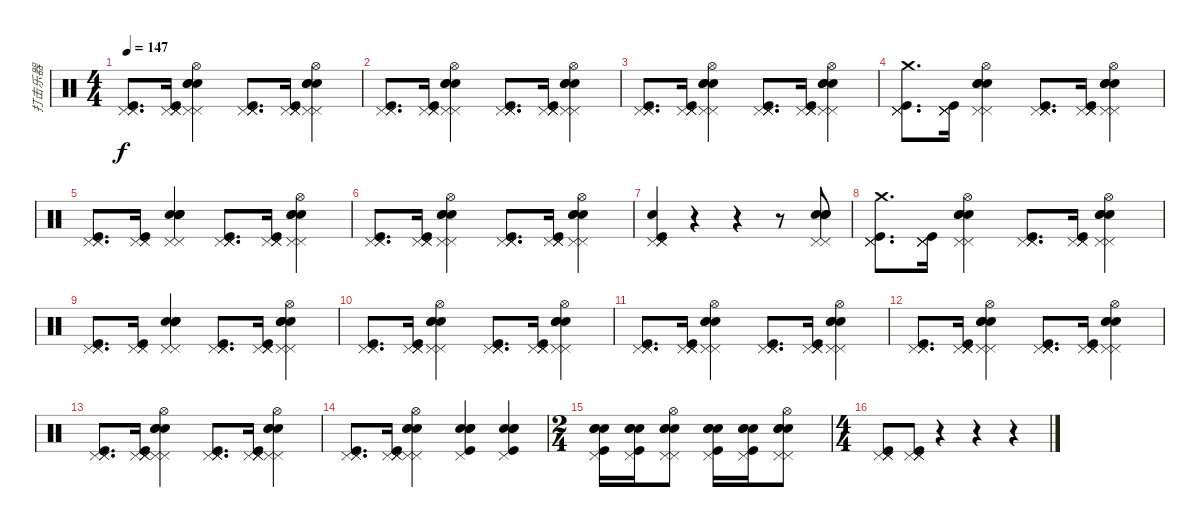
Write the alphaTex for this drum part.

\track ("打击乐器" "打击乐器") {instrument percussion}
\staff {score}
\articulation defaults
\ts (4 4)
\tempo 147
\clef neutral
\ks c
("Pedal Hi-Hat (hit)" "Pedal Hi-Hat (hit)" "Pedal Hi-Hat (hit)" "Kick (hit)").8{d dy f} ("Pedal Hi-Hat (hit)" "Pedal Hi-Hat (hit)" "Pedal Hi-Hat (hit)" "Pedal Hi-Hat (hit)" "Kick (hit)").16 ("Electric Snare (hit)" "Electric Snare (hit)" "Electric Snare (hit)" "Hi-Hat (open)" "Pedal Hi-Hat (hit)" "Pedal Hi-Hat (hit)").4 ("Pedal Hi-Hat (hit)" "Pedal Hi-Hat (hit)" "Pedal Hi-Hat (hit)" "Pedal Hi-Hat (hit)" "Kick (hit)").8{d} ("Pedal Hi-Hat (hit)" "Pedal Hi-Hat (hit)" "Pedal Hi-Hat (hit)" "Pedal Hi-Hat (hit)" "Kick (hit)").16 ("Electric Snare (hit)" "Electric Snare (hit)" "Electric Snare (hit)" "Hi-Hat (open)" "Pedal Hi-Hat (hit)" "Pedal Hi-Hat (hit)").4 |
("Pedal Hi-Hat (hit)" "Pedal Hi-Hat (hit)" "Pedal Hi-Hat (hit)" "Kick (hit)").8{d} ("Pedal Hi-Hat (hit)" "Pedal Hi-Hat (hit)" "Pedal Hi-Hat (hit)" "Pedal Hi-Hat (hit)" "Kick (hit)").16 ("Electric Snare (hit)" "Electric Snare (hit)" "Electric Snare (hit)" "Hi-Hat (open)" "Pedal Hi-Hat (hit)" "Pedal Hi-Hat (hit)").4 ("Pedal Hi-Hat (hit)" "Pedal Hi-Hat (hit)" "Pedal Hi-Hat (hit)" "Pedal Hi-Hat (hit)" "Kick (hit)").8{d} ("Pedal Hi-Hat (hit)" "Pedal Hi-Hat (hit)" "Pedal Hi-Hat (hit)" "Pedal Hi-Hat (hit)" "Kick (hit)").16 ("Electric Snare (hit)" "Electric Snare (hit)" "Electric Snare (hit)" "Hi-Hat (open)" "Pedal Hi-Hat (hit)" "Pedal Hi-Hat (hit)").4 |
("Pedal Hi-Hat (hit)" "Pedal Hi-Hat (hit)" "Pedal Hi-Hat (hit)" "Kick (hit)").8{d} ("Pedal Hi-Hat (hit)" "Pedal Hi-Hat (hit)" "Pedal Hi-Hat (hit)" "Pedal Hi-Hat (hit)" "Kick (hit)").16 ("Electric Snare (hit)" "Electric Snare (hit)" "Electric Snare (hit)" "Hi-Hat (open)" "Pedal Hi-Hat (hit)" "Pedal Hi-Hat (hit)").4 ("Pedal Hi-Hat (hit)" "Pedal Hi-Hat (hit)" "Pedal Hi-Hat (hit)" "Pedal Hi-Hat (hit)" "Kick (hit)").8{d} ("Pedal Hi-Hat (hit)" "Pedal Hi-Hat (hit)" "Pedal Hi-Hat (hit)" "Pedal Hi-Hat (hit)" "Kick (hit)").16 ("Electric Snare (hit)" "Electric Snare (hit)" "Electric Snare (hit)" "Hi-Hat (open)" "Pedal Hi-Hat (hit)" "Pedal Hi-Hat (hit)").4 |
("Pedal Hi-Hat (hit)" "Pedal Hi-Hat (hit)" "Pedal Hi-Hat (hit)" "Crash medium (hit)" "Kick (hit)").8{d} ("Pedal Hi-Hat (hit)" "Pedal Hi-Hat (hit)" "Pedal Hi-Hat (hit)" "Pedal Hi-Hat (hit)" "Kick (hit)").16 ("Electric Snare (hit)" "Electric Snare (hit)" "Electric Snare (hit)" "Hi-Hat (open)" "Pedal Hi-Hat (hit)" "Pedal Hi-Hat (hit)").4 ("Pedal Hi-Hat (hit)" "Pedal Hi-Hat (hit)" "Pedal Hi-Hat (hit)" "Pedal Hi-Hat (hit)" "Kick (hit)").8{d} ("Pedal Hi-Hat (hit)" "Pedal Hi-Hat (hit)" "Pedal Hi-Hat (hit)" "Pedal Hi-Hat (hit)" "Kick (hit)").16 ("Electric Snare (hit)" "Electric Snare (hit)" "Electric Snare (hit)" "Hi-Hat (open)" "Pedal Hi-Hat (hit)" "Pedal Hi-Hat (hit)").4 |
("Pedal Hi-Hat (hit)" "Pedal Hi-Hat (hit)" "Pedal Hi-Hat (hit)" "Kick (hit)").8{d} ("Pedal Hi-Hat (hit)" "Pedal Hi-Hat (hit)" "Pedal Hi-Hat (hit)" "Kick (hit)").16 ("Electric Snare (hit)" "Electric Snare (hit)" "Electric Snare (hit)" "Electric Snare (hit)" "Pedal Hi-Hat (hit)" "Pedal Hi-Hat (hit)").4 ("Pedal Hi-Hat (hit)" "Pedal Hi-Hat (hit)" "Pedal Hi-Hat (hit)" "Pedal Hi-Hat (hit)" "Kick (hit)").8{d} ("Pedal Hi-Hat (hit)" "Pedal Hi-Hat (hit)" "Pedal Hi-Hat (hit)" "Pedal Hi-Hat (hit)" "Kick (hit)").16 ("Electric Snare (hit)" "Electric Snare (hit)" "Electric Snare (hit)" "Hi-Hat (open)" "Pedal Hi-Hat (hit)" "Pedal Hi-Hat (hit)").4 |
("Pedal Hi-Hat (hit)" "Pedal Hi-Hat (hit)" "Pedal Hi-Hat (hit)" "Kick (hit)").8{d} ("Pedal Hi-Hat (hit)" "Pedal Hi-Hat (hit)" "Pedal Hi-Hat (hit)" "Pedal Hi-Hat (hit)" "Kick (hit)").16 ("Electric Snare (hit)" "Electric Snare (hit)" "Electric Snare (hit)" "Hi-Hat (open)" "Pedal Hi-Hat (hit)" "Pedal Hi-Hat (hit)").4 ("Pedal Hi-Hat (hit)" "Pedal Hi-Hat (hit)" "Pedal Hi-Hat (hit)" "Pedal Hi-Hat (hit)" "Kick (hit)").8{d} ("Pedal Hi-Hat (hit)" "Pedal Hi-Hat (hit)" "Pedal Hi-Hat (hit)" "Pedal Hi-Hat (hit)" "Kick (hit)").16 ("Electric Snare (hit)" "Electric Snare (hit)" "Electric Snare (hit)" "Hi-Hat (open)" "Pedal Hi-Hat (hit)" "Pedal Hi-Hat (hit)").4 |
("Pedal Hi-Hat (hit)" "Pedal Hi-Hat (hit)" "Pedal Hi-Hat (hit)" "Electric Snare (hit)" "Pedal Hi-Hat (hit)" "Kick (hit)").4 r.4 r.4 r.8 ("Pedal Hi-Hat (hit)" "Electric Snare (hit)" "Electric Snare (hit)" "Electric Snare (hit)" "Electric Snare (hit)" "Pedal Hi-Hat (hit)").8 |
("Pedal Hi-Hat (hit)" "Pedal Hi-Hat (hit)" "Pedal Hi-Hat (hit)" "Crash medium (hit)" "Kick (hit)").8{d} ("Pedal Hi-Hat (hit)" "Pedal Hi-Hat (hit)" "Pedal Hi-Hat (hit)" "Pedal Hi-Hat (hit)" "Kick (hit)").16 ("Electric Snare (hit)" "Electric Snare (hit)" "Electric Snare (hit)" "Hi-Hat (open)" "Pedal Hi-Hat (hit)" "Pedal Hi-Hat (hit)").4 ("Pedal Hi-Hat (hit)" "Pedal Hi-Hat (hit)" "Pedal Hi-Hat (hit)" "Pedal Hi-Hat (hit)" "Kick (hit)").8{d} ("Pedal Hi-Hat (hit)" "Pedal Hi-Hat (hit)" "Pedal Hi-Hat (hit)" "Pedal Hi-Hat (hit)" "Kick (hit)").16 ("Electric Snare (hit)" "Electric Snare (hit)" "Electric Snare (hit)" "Hi-Hat (open)" "Pedal Hi-Hat (hit)" "Pedal Hi-Hat (hit)").4 |
("Pedal Hi-Hat (hit)" "Pedal Hi-Hat (hit)" "Pedal Hi-Hat (hit)" "Kick (hit)").8{d} ("Pedal Hi-Hat (hit)" "Pedal Hi-Hat (hit)" "Pedal Hi-Hat (hit)" "Kick (hit)").16 ("Electric Snare (hit)" "Electric Snare (hit)" "Electric Snare (hit)" "Electric Snare (hit)" "Pedal Hi-Hat (hit)" "Pedal Hi-Hat (hit)").4 ("Pedal Hi-Hat (hit)" "Pedal Hi-Hat (hit)" "Pedal Hi-Hat (hit)" "Pedal Hi-Hat (hit)" "Kick (hit)").8{d} ("Pedal Hi-Hat (hit)" "Pedal Hi-Hat (hit)" "Pedal Hi-Hat (hit)" "Pedal Hi-Hat (hit)" "Kick (hit)").16 ("Electric Snare (hit)" "Electric Snare (hit)" "Electric Snare (hit)" "Hi-Hat (open)" "Pedal Hi-Hat (hit)" "Pedal Hi-Hat (hit)").4 |
("Pedal Hi-Hat (hit)" "Pedal Hi-Hat (hit)" "Pedal Hi-Hat (hit)" "Kick (hit)").8{d} ("Pedal Hi-Hat (hit)" "Pedal Hi-Hat (hit)" "Pedal Hi-Hat (hit)" "Pedal Hi-Hat (hit)" "Kick (hit)").16 ("Electric Snare (hit)" "Electric Snare (hit)" "Electric Snare (hit)" "Hi-Hat (open)" "Pedal Hi-Hat (hit)" "Pedal Hi-Hat (hit)").4 ("Pedal Hi-Hat (hit)" "Pedal Hi-Hat (hit)" "Pedal Hi-Hat (hit)" "Pedal Hi-Hat (hit)" "Kick (hit)").8{d} ("Pedal Hi-Hat (hit)" "Pedal Hi-Hat (hit)" "Pedal Hi-Hat (hit)" "Pedal Hi-Hat (hit)" "Kick (hit)").16 ("Electric Snare (hit)" "Electric Snare (hit)" "Electric Snare (hit)" "Hi-Hat (open)" "Pedal Hi-Hat (hit)" "Pedal Hi-Hat (hit)").4 |
("Pedal Hi-Hat (hit)" "Pedal Hi-Hat (hit)" "Pedal Hi-Hat (hit)" "Kick (hit)").8{d} ("Pedal Hi-Hat (hit)" "Pedal Hi-Hat (hit)" "Pedal Hi-Hat (hit)" "Pedal Hi-Hat (hit)" "Kick (hit)").16 ("Electric Snare (hit)" "Electric Snare (hit)" "Electric Snare (hit)" "Hi-Hat (open)" "Pedal Hi-Hat (hit)" "Pedal Hi-Hat (hit)").4 ("Pedal Hi-Hat (hit)" "Pedal Hi-Hat (hit)" "Pedal Hi-Hat (hit)" "Pedal Hi-Hat (hit)" "Kick (hit)").8{d} ("Pedal Hi-Hat (hit)" "Pedal Hi-Hat (hit)" "Pedal Hi-Hat (hit)" "Pedal Hi-Hat (hit)" "Kick (hit)").16 ("Electric Snare (hit)" "Electric Snare (hit)" "Electric Snare (hit)" "Hi-Hat (open)" "Pedal Hi-Hat (hit)" "Pedal Hi-Hat (hit)").4 |
("Pedal Hi-Hat (hit)" "Pedal Hi-Hat (hit)" "Pedal Hi-Hat (hit)" "Kick (hit)").8{d} ("Pedal Hi-Hat (hit)" "Pedal Hi-Hat (hit)" "Pedal Hi-Hat (hit)" "Pedal Hi-Hat (hit)" "Kick (hit)").16 ("Electric Snare (hit)" "Electric Snare (hit)" "Electric Snare (hit)" "Hi-Hat (open)" "Pedal Hi-Hat (hit)" "Pedal Hi-Hat (hit)").4 ("Pedal Hi-Hat (hit)" "Pedal Hi-Hat (hit)" "Pedal Hi-Hat (hit)" "Pedal Hi-Hat (hit)" "Kick (hit)").8{d} ("Pedal Hi-Hat (hit)" "Pedal Hi-Hat (hit)" "Pedal Hi-Hat (hit)" "Pedal Hi-Hat (hit)" "Kick (hit)").16 ("Electric Snare (hit)" "Electric Snare (hit)" "Electric Snare (hit)" "Hi-Hat (open)" "Pedal Hi-Hat (hit)" "Pedal Hi-Hat (hit)").4 |
("Pedal Hi-Hat (hit)" "Pedal Hi-Hat (hit)" "Pedal Hi-Hat (hit)" "Kick (hit)").8{d} ("Pedal Hi-Hat (hit)" "Pedal Hi-Hat (hit)" "Pedal Hi-Hat (hit)" "Pedal Hi-Hat (hit)" "Kick (hit)").16 ("Electric Snare (hit)" "Electric Snare (hit)" "Electric Snare (hit)" "Hi-Hat (open)" "Pedal Hi-Hat (hit)" "Pedal Hi-Hat (hit)").4 ("Pedal Hi-Hat (hit)" "Pedal Hi-Hat (hit)" "Pedal Hi-Hat (hit)" "Pedal Hi-Hat (hit)" "Kick (hit)").8{d} ("Pedal Hi-Hat (hit)" "Pedal Hi-Hat (hit)" "Pedal Hi-Hat (hit)" "Pedal Hi-Hat (hit)" "Kick (hit)").16 ("Electric Snare (hit)" "Electric Snare (hit)" "Electric Snare (hit)" "Hi-Hat (open)" "Pedal Hi-Hat (hit)" "Pedal Hi-Hat (hit)").4 |
("Pedal Hi-Hat (hit)" "Pedal Hi-Hat (hit)" "Pedal Hi-Hat (hit)" "Kick (hit)").8{d} ("Pedal Hi-Hat (hit)" "Pedal Hi-Hat (hit)" "Pedal Hi-Hat (hit)" "Pedal Hi-Hat (hit)" "Kick (hit)").16 ("Electric Snare (hit)" "Electric Snare (hit)" "Electric Snare (hit)" "Hi-Hat (open)" "Pedal Hi-Hat (hit)" "Pedal Hi-Hat (hit)").4 ("Pedal Hi-Hat (hit)" "Electric Snare (hit)" "Electric Snare (hit)" "Electric Snare (hit)" "Kick (hit)").4 ("Pedal Hi-Hat (hit)" "Electric Snare (hit)" "Electric Snare (hit)" "Electric Snare (hit)" "Kick (hit)").4 |
\ts (2 4)
("Electric Snare (hit)" "Electric Snare (hit)" "Electric Snare (hit)" "Kick (hit)" "Pedal Hi-Hat (hit)").16 ("Electric Snare (hit)" "Electric Snare (hit)" "Electric Snare (hit)" "Kick (hit)" "Pedal Hi-Hat (hit)").16 ("Electric Snare (hit)" "Electric Snare (hit)" "Electric Snare (hit)" "Pedal Hi-Hat (hit)" "Pedal Hi-Hat (hit)" "Hi-Hat (open)").8 ("Electric Snare (hit)" "Electric Snare (hit)" "Electric Snare (hit)" "Kick (hit)" "Pedal Hi-Hat (hit)").16 ("Electric Snare (hit)" "Electric Snare (hit)" "Electric Snare (hit)" "Kick (hit)" "Pedal Hi-Hat (hit)").16 ("Electric Snare (hit)" "Electric Snare (hit)" "Electric Snare (hit)" "Pedal Hi-Hat (hit)" "Pedal Hi-Hat (hit)" "Hi-Hat (open)").8 |
\ts (4 4)
("Pedal Hi-Hat (hit)" "Pedal Hi-Hat (hit)" "Pedal Hi-Hat (hit)" "Pedal Hi-Hat (hit)" "Kick (hit)").8 ("Pedal Hi-Hat (hit)" "Pedal Hi-Hat (hit)" "Pedal Hi-Hat (hit)" "Pedal Hi-Hat (hit)" "Kick (hit)").8 r.4 r.4 r.4
